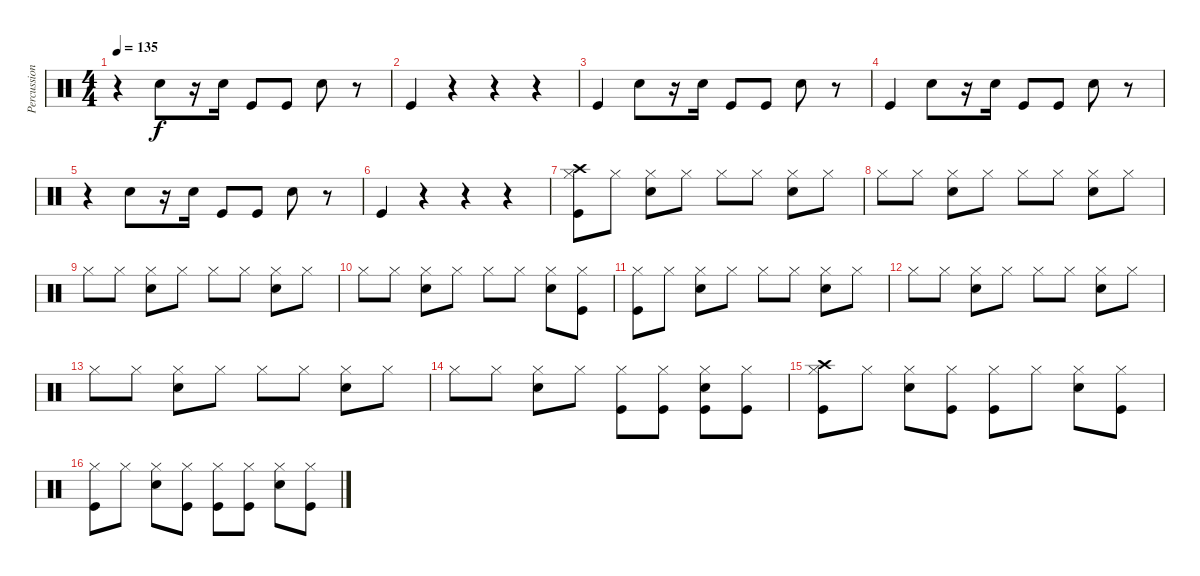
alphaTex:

\track ("Percussion - Mark Gajadhar" "Percussion") {instrument percussion}
\staff {score}
\articulation defaults
\ts (4 4)
\tempo 135
\clef neutral
\ks c
r.4{dy f} "Snare (hit) 2".8 r.16 "Snare (hit) 2".16 "Kick (hit)".8 "Kick (hit)".8 "Snare (hit) 2".8 r.8 |
"Kick (hit)".4 r.4 r.4 r.4 |
"Kick (hit)".4 "Snare (hit) 2".8 r.16 "Snare (hit) 2".16 "Kick (hit)".8 "Kick (hit)".8 "Snare (hit) 2".8 r.8 |
"Kick (hit)".4 "Snare (hit) 2".8 r.16 "Snare (hit) 2".16 "Kick (hit)".8 "Kick (hit)".8 "Snare (hit) 2".8 r.8 |
r.4 "Snare (hit) 2".8 r.16 "Snare (hit) 2".16 "Kick (hit)".8 "Kick (hit)".8 "Snare (hit) 2".8 r.8 |
"Kick (hit)".4 r.4 r.4 r.4 |
("Crash high (hit)" "Hi-Hat (closed)" "Kick (hit)").8{volume 10} "Hi-Hat (closed)".8 ("Snare (hit) 2" "Hi-Hat (closed)").8 "Hi-Hat (closed)".8 "Hi-Hat (closed)".8 "Hi-Hat (closed)".8 ("Snare (hit) 2" "Hi-Hat (closed)").8 "Hi-Hat (closed)".8 |
"Hi-Hat (closed)".8 "Hi-Hat (closed)".8 ("Snare (hit) 2" "Hi-Hat (closed)").8 "Hi-Hat (closed)".8 "Hi-Hat (closed)".8 "Hi-Hat (closed)".8 ("Snare (hit) 2" "Hi-Hat (closed)").8 "Hi-Hat (closed)".8 |
"Hi-Hat (closed)".8 "Hi-Hat (closed)".8 ("Snare (hit) 2" "Hi-Hat (closed)").8 "Hi-Hat (closed)".8 "Hi-Hat (closed)".8 "Hi-Hat (closed)".8 ("Snare (hit) 2" "Hi-Hat (closed)").8 "Hi-Hat (closed)".8 |
"Hi-Hat (closed)".8 "Hi-Hat (closed)".8 ("Snare (hit) 2" "Hi-Hat (closed)").8 "Hi-Hat (closed)".8 "Hi-Hat (closed)".8 "Hi-Hat (closed)".8 ("Snare (hit) 2" "Hi-Hat (closed)").8 ("Hi-Hat (closed)" "Kick (hit)").8 |
("Hi-Hat (closed)" "Kick (hit)").8 "Hi-Hat (closed)".8 ("Snare (hit) 2" "Hi-Hat (closed)").8 "Hi-Hat (closed)".8 "Hi-Hat (closed)".8 "Hi-Hat (closed)".8 ("Snare (hit) 2" "Hi-Hat (closed)").8 "Hi-Hat (closed)".8 |
"Hi-Hat (closed)".8 "Hi-Hat (closed)".8 ("Snare (hit) 2" "Hi-Hat (closed)").8 "Hi-Hat (closed)".8 "Hi-Hat (closed)".8 "Hi-Hat (closed)".8 ("Snare (hit) 2" "Hi-Hat (closed)").8 "Hi-Hat (closed)".8 |
"Hi-Hat (closed)".8 "Hi-Hat (closed)".8 ("Snare (hit) 2" "Hi-Hat (closed)").8 "Hi-Hat (closed)".8 "Hi-Hat (closed)".8 "Hi-Hat (closed)".8 ("Snare (hit) 2" "Hi-Hat (closed)").8 "Hi-Hat (closed)".8 |
"Hi-Hat (closed)".8 "Hi-Hat (closed)".8 ("Snare (hit) 2" "Hi-Hat (closed)").8 "Hi-Hat (closed)".8 ("Hi-Hat (closed)" "Kick (hit)").8 ("Hi-Hat (closed)" "Kick (hit)").8 ("Snare (hit) 2" "Hi-Hat (closed)" "Kick (hit)").8 ("Hi-Hat (closed)" "Kick (hit)").8 |
("Crash high (hit)" "Hi-Hat (closed)" "Kick (hit)").8 "Hi-Hat (closed)".8 ("Snare (hit) 2" "Hi-Hat (closed)").8 ("Hi-Hat (closed)" "Kick (hit)").8 ("Hi-Hat (closed)" "Kick (hit)").8 "Hi-Hat (closed)".8 ("Snare (hit) 2" "Hi-Hat (closed)").8 ("Hi-Hat (closed)" "Kick (hit)").8 |
("Hi-Hat (closed)" "Kick (hit)").8 "Hi-Hat (closed)".8 ("Snare (hit) 2" "Hi-Hat (closed)").8 ("Hi-Hat (closed)" "Kick (hit)").8 ("Hi-Hat (closed)" "Kick (hit)").8 ("Hi-Hat (closed)" "Kick (hit)").8 ("Snare (hit) 2" "Hi-Hat (closed)").8 ("Hi-Hat (closed)" "Kick (hit)").8
